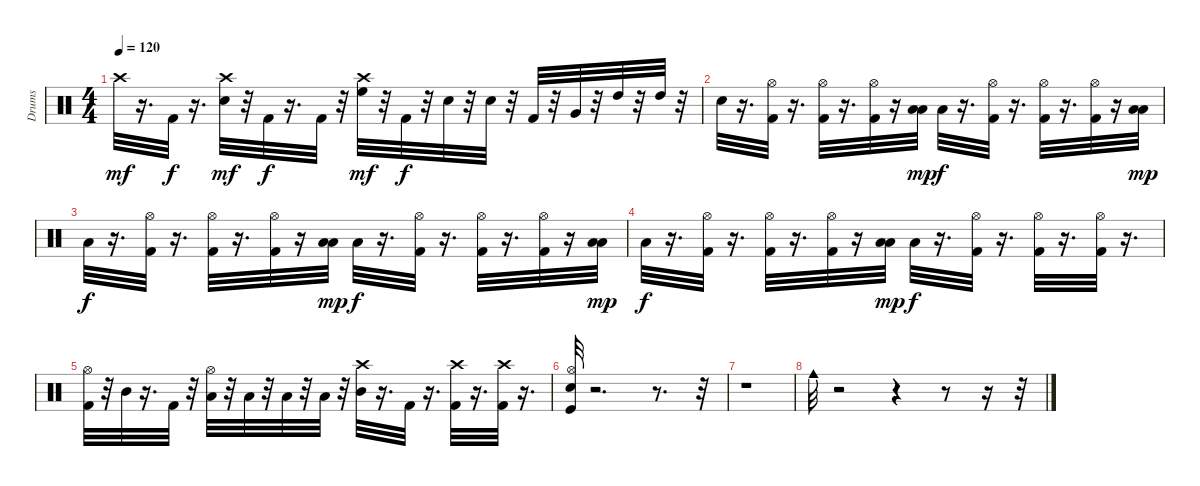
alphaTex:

\track ("Drums" "Drums") {instrument percussion}
\staff {score}
\articulation defaults
\ts (4 4)
\tempo 120
\clef neutral
\ks c "Crash high (hit)".32{dy mf}
r.16{d} "Kick (hit) 2".32{dy f} r.16{d} ("Snare (hit) 2" "Crash high (hit)").32{dy mf} r.32 "Kick (hit) 2".32{dy f} r.16{d} "Kick (hit) 2".32 r.32 ("High Floor Tom (hit)" "Crash high (hit)").32{dy mf} r.32 "Kick (hit) 2".32{dy f} r.32 "Snare (hit) 2".32 r.32 "Snare (hit) 2".32 r.32 "Kick (hit) 2".32 r.32 "Very Low Tom (hit)".32 r.32 "High Tom (hit)".32 r.32 "High Tom (hit)".32 r.32 |
"Snare (hit) 2".32 r.16{d} ("Kick (hit) 2" "Hi-Hat (open)").32 r.16{d} ("Kick (hit) 2" "Hi-Hat (open)").32 r.16{d} ("Kick (hit) 2" "Hi-Hat (open)").32 r.16 ("Low Floor Tom (hit)" "Low Floor Tom (hit)").32{dy mp} "Low Floor Tom (hit)".32{dy f} r.16{d} ("Kick (hit) 2" "Hi-Hat (open)").32 r.16{d} ("Kick (hit) 2" "Hi-Hat (open)").32 r.16{d} ("Kick (hit) 2" "Hi-Hat (open)").32 r.16 ("Low Floor Tom (hit)" "Low Floor Tom (hit)").32{dy mp} |
"Low Floor Tom (hit)".32{dy f} r.16{d} ("Kick (hit) 2" "Hi-Hat (open)").32 r.16{d} ("Kick (hit) 2" "Hi-Hat (open)").32 r.16{d} ("Kick (hit) 2" "Hi-Hat (open)").32 r.16 ("Low Floor Tom (hit)" "Low Floor Tom (hit)").32{dy mp} "Low Floor Tom (hit)".32{dy f} r.16{d} ("Kick (hit) 2" "Hi-Hat (open)").32 r.16{d} ("Kick (hit) 2" "Hi-Hat (open)").32 r.16{d} ("Kick (hit) 2" "Hi-Hat (open)").32 r.16 ("Low Floor Tom (hit)" "Low Floor Tom (hit)").32{dy mp} |
"Low Floor Tom (hit)".32{dy f} r.16{d} ("Kick (hit) 2" "Hi-Hat (open)").32 r.16{d} ("Kick (hit) 2" "Hi-Hat (open)").32 r.16{d} ("Kick (hit) 2" "Hi-Hat (open)").32 r.16 ("Low Floor Tom (hit)" "Low Floor Tom (hit)").32{dy mp} "Low Floor Tom (hit)".32{dy f} r.16{d} ("Kick (hit) 2" "Hi-Hat (open)").32 r.16{d} ("Kick (hit) 2" "Hi-Hat (open)").32 r.16{d} ("Kick (hit) 2" "Hi-Hat (open)").32 r.16{d} |
("Hi-Hat (open)" "Kick (hit) 2").32 r.32 "Mid Tom (hit)".32 r.16{d} "Kick (hit) 2".32 r.32 ("Hi-Hat (open)" "Low Tom (hit)").32 r.32 "Low Tom (hit)".32 r.32 "Low Floor Tom (hit)".32 r.32 "Low Floor Tom (hit)".32 r.32 ("Crash high (hit)" "Mid Tom (hit)").32 r.16{d} "Kick (hit) 2".32 r.16{d} ("Kick (hit) 2" "Crash high (hit)").32 r.16{d} ("Kick (hit) 2" "Crash high (hit)").32 r.16{d} |
("Snare (hit) 2" "Kick (hit)" "Hi-Hat (open)").32 r.2{d} r.8{d} r.32 |
r.1 |
"Cowbell medium (hit)".32 r.2 r.4 r.8 r.16 r.32
